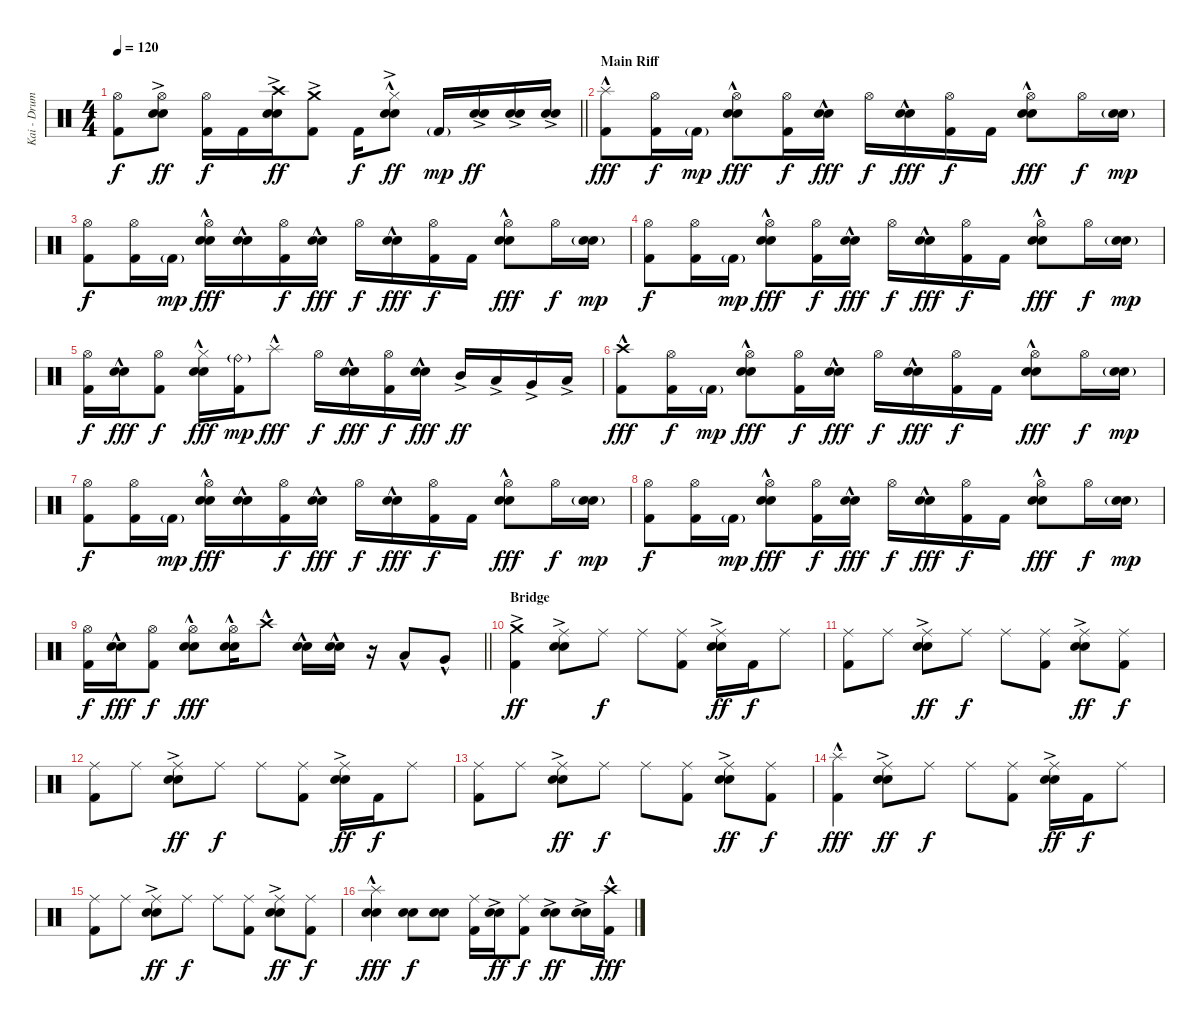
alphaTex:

\track ("Kai - Drums" "Kai - Drum") {instrument percussion}
\staff {score}
\articulation defaults
\ts (4 4)
\tempo 120
\clef neutral
\barLineRight lightlight
\ks c
("Hi-Hat (open)" "Kick (hit) 2").8{dy f} ("Hi-Hat (open)" "Electric Snare (hit)"{ac} "Snare (hit) 2"{ac}).8{dy ff} ("Hi-Hat (open)" "Kick (hit) 2").16{dy f} "Kick (hit) 2".16 ("Crash high (hit)"{ac} "Electric Snare (hit)"{ac} "Snare (hit) 2"{ac}).16{dy ff} ("Crash medium (hit)"{ac} "Kick (hit) 2").8 "Kick (hit) 2".16{dy f} ("Hi-Hat (closed)"{hac} "Electric Snare (hit)"{ac} "Snare (hit) 2"{ac}).8{dy ff} "Kick (hit) 2"{g}.16{dy mp} ("Electric Snare (hit)"{ac} "Snare (hit) 2"{ac}).16{dy ff} ("Electric Snare (hit)"{ac} "Snare (hit) 2"{ac}).16 ("Electric Snare (hit)"{ac} "Snare (hit) 2"{ac}).16 |
\section ("" "Main Riff")
("Splash (hit)"{hac} "Kick (hit) 2").8{dy fff} ("Hi-Hat (open)" "Kick (hit) 2").16{dy f} "Kick (hit) 2"{g}.16{dy mp} ("Hi-Hat (open)" "Electric Snare (hit)"{hac} "Snare (hit) 2").8{dy fff} ("Hi-Hat (open)" "Kick (hit) 2").16{dy f} ("Electric Snare (hit)"{hac} "Snare (hit) 2").16{dy fff} "Hi-Hat (open)".16{dy f} ("Electric Snare (hit)"{hac} "Snare (hit) 2").16{dy fff} ("Hi-Hat (open)" "Kick (hit) 2").16{dy f} "Kick (hit) 2".16 ("Hi-Hat (open)" "Electric Snare (hit)"{hac} "Snare (hit) 2").8{dy fff} "Hi-Hat (open)".16{dy f} ("Electric Snare (hit)"{g} "Snare (hit) 2"{g}).16{dy mp} |
("Hi-Hat (open)" "Kick (hit) 2").8{dy f} ("Hi-Hat (open)" "Kick (hit) 2").16 "Kick (hit) 2"{g}.16{dy mp} ("Hi-Hat (open)" "Electric Snare (hit)"{hac} "Snare (hit) 2").16{dy fff} ("Electric Snare (hit)"{hac} "Snare (hit) 2").16 ("Hi-Hat (open)" "Kick (hit) 2").16{dy f} ("Electric Snare (hit)"{hac} "Snare (hit) 2").16{dy fff} "Hi-Hat (open)".16{dy f} ("Electric Snare (hit)"{hac} "Snare (hit) 2").16{dy fff} ("Hi-Hat (open)" "Kick (hit) 2").16{dy f} "Kick (hit) 2".16 ("Hi-Hat (open)" "Electric Snare (hit)"{hac} "Snare (hit) 2").8{dy fff} "Hi-Hat (open)".16{dy f} ("Electric Snare (hit)"{g} "Snare (hit) 2"{g}).16{dy mp} |
("Hi-Hat (open)" "Kick (hit) 2").8{dy f} ("Hi-Hat (open)" "Kick (hit) 2").16 "Kick (hit) 2"{g}.16{dy mp} ("Hi-Hat (open)" "Electric Snare (hit)"{hac} "Snare (hit) 2").8{dy fff} ("Hi-Hat (open)" "Kick (hit) 2").16{dy f} ("Electric Snare (hit)"{hac} "Snare (hit) 2").16{dy fff} "Hi-Hat (open)".16{dy f} ("Electric Snare (hit)"{hac} "Snare (hit) 2").16{dy fff} ("Hi-Hat (open)" "Kick (hit) 2").16{dy f} "Kick (hit) 2".16 ("Hi-Hat (open)" "Electric Snare (hit)"{hac} "Snare (hit) 2").8{dy fff} "Hi-Hat (open)".16{dy f} ("Electric Snare (hit)"{g} "Snare (hit) 2"{g}).16{dy mp} |
("Hi-Hat (open)" "Kick (hit) 2").16{dy f} ("Electric Snare (hit)"{hac} "Snare (hit) 2").16{dy fff} ("Hi-Hat (open)" "Kick (hit) 2").8{dy f} ("Hi-Hat (closed)" "Electric Snare (hit)"{hac} "Snare (hit) 2").16{dy fff} ("Ride (bell)"{g} "Kick (hit) 2").16{dy mp} "Splash (hit)"{hac}.8{dy fff} "Hi-Hat (open)".16{dy f} ("Electric Snare (hit)"{hac} "Snare (hit) 2").16{dy fff} ("Hi-Hat (open)" "Kick (hit) 2").16{dy f} ("Electric Snare (hit)"{hac} "Snare (hit) 2").16{dy fff} "Mid Tom (hit)"{ac}.16{dy ff} "Low Tom (hit)"{ac}.16 "Very Low Tom (hit)"{ac}.16 "Low Floor Tom (hit)"{ac}.16 |
("Crash high (hit)"{hac} "Kick (hit) 2").8{dy fff} ("Hi-Hat (open)" "Kick (hit) 2").16{dy f} "Kick (hit) 2"{g}.16{dy mp} ("Hi-Hat (open)" "Electric Snare (hit)"{hac} "Snare (hit) 2").8{dy fff} ("Hi-Hat (open)" "Kick (hit) 2").16{dy f} ("Electric Snare (hit)"{hac} "Snare (hit) 2").16{dy fff} "Hi-Hat (open)".16{dy f} ("Electric Snare (hit)"{hac} "Snare (hit) 2").16{dy fff} ("Hi-Hat (open)" "Kick (hit) 2").16{dy f} "Kick (hit) 2".16 ("Hi-Hat (open)" "Electric Snare (hit)"{hac} "Snare (hit) 2").8{dy fff} "Hi-Hat (open)".16{dy f} ("Electric Snare (hit)"{g} "Snare (hit) 2"{g}).16{dy mp} |
("Hi-Hat (open)" "Kick (hit) 2").8{dy f} ("Hi-Hat (open)" "Kick (hit) 2").16 "Kick (hit) 2"{g}.16{dy mp} ("Hi-Hat (open)" "Electric Snare (hit)"{hac} "Snare (hit) 2").16{dy fff} ("Electric Snare (hit)"{hac} "Snare (hit) 2").16 ("Hi-Hat (open)" "Kick (hit) 2").16{dy f} ("Electric Snare (hit)"{hac} "Snare (hit) 2").16{dy fff} "Hi-Hat (open)".16{dy f} ("Electric Snare (hit)"{hac} "Snare (hit) 2").16{dy fff} ("Hi-Hat (open)" "Kick (hit) 2").16{dy f} "Kick (hit) 2".16 ("Hi-Hat (open)" "Electric Snare (hit)"{hac} "Snare (hit) 2").8{dy fff} "Hi-Hat (open)".16{dy f} ("Electric Snare (hit)"{g} "Snare (hit) 2"{g}).16{dy mp} |
("Hi-Hat (open)" "Kick (hit) 2").8{dy f} ("Hi-Hat (open)" "Kick (hit) 2").16 "Kick (hit) 2"{g}.16{dy mp} ("Hi-Hat (open)" "Electric Snare (hit)"{hac} "Snare (hit) 2").8{dy fff} ("Hi-Hat (open)" "Kick (hit) 2").16{dy f} ("Electric Snare (hit)"{hac} "Snare (hit) 2").16{dy fff} "Hi-Hat (open)".16{dy f} ("Electric Snare (hit)"{hac} "Snare (hit) 2").16{dy fff} ("Hi-Hat (open)" "Kick (hit) 2").16{dy f} "Kick (hit) 2".16 ("Hi-Hat (open)" "Electric Snare (hit)"{hac} "Snare (hit) 2").8{dy fff} "Hi-Hat (open)".16{dy f} ("Electric Snare (hit)"{g} "Snare (hit) 2"{g}).16{dy mp} |
\barLineRight lightlight
("Hi-Hat (open)" "Kick (hit) 2").16{dy f} ("Electric Snare (hit)"{hac} "Snare (hit) 2").16{dy fff} ("Hi-Hat (open)" "Kick (hit) 2").8{dy f} ("Hi-Hat (open)" "Electric Snare (hit)"{hac} "Snare (hit) 2").8{dy fff} ("Hi-Hat (open)" "Electric Snare (hit)"{hac} "Snare (hit) 2").16 "Crash high (hit)"{hac}.8 ("Electric Snare (hit)"{hac} "Snare (hit) 2").16 ("Electric Snare (hit)"{hac} "Snare (hit) 2").16 r.16 "Low Tom (hit)"{hac}.8 "Very Low Tom (hit)"{hac}.8 |
\section ("" "Bridge")
("Crash medium (hit)"{ac} "Kick (hit) 2").4{dy ff} ("Ride (middle)" "Electric Snare (hit)"{ac} "Snare (hit) 2"{ac}).8 "Ride (middle)".8{dy f} "Ride (middle)".8 ("Ride (middle)" "Kick (hit) 2").8 ("Ride (middle)" "Electric Snare (hit)"{ac} "Snare (hit) 2"{ac}).16{dy ff} "Kick (hit) 2".16{dy f} "Ride (middle)".8 |
("Ride (middle)" "Kick (hit) 2").8 "Ride (middle)".8 ("Ride (middle)" "Electric Snare (hit)"{ac} "Snare (hit) 2"{ac}).8{dy ff} "Ride (middle)".8{dy f} "Ride (middle)".8 ("Ride (middle)" "Kick (hit) 2").8 ("Ride (middle)" "Electric Snare (hit)"{ac} "Snare (hit) 2"{ac}).8{dy ff} ("Ride (middle)" "Kick (hit) 2").8{dy f} |
("Ride (middle)" "Kick (hit) 2").8 "Ride (middle)".8 ("Ride (middle)" "Electric Snare (hit)"{ac} "Snare (hit) 2"{ac}).8{dy ff} "Ride (middle)".8{dy f} "Ride (middle)".8 ("Ride (middle)" "Kick (hit) 2").8 ("Ride (middle)" "Electric Snare (hit)"{ac} "Snare (hit) 2"{ac}).16{dy ff} "Kick (hit) 2".16{dy f} "Ride (middle)".8 |
("Ride (middle)" "Kick (hit) 2").8 "Ride (middle)".8 ("Ride (middle)" "Electric Snare (hit)"{ac} "Snare (hit) 2"{ac}).8{dy ff} "Ride (middle)".8{dy f} "Ride (middle)".8 ("Ride (middle)" "Kick (hit) 2").8 ("Ride (middle)" "Electric Snare (hit)"{ac} "Snare (hit) 2"{ac}).8{dy ff} ("Ride (middle)" "Kick (hit) 2").8{dy f} |
("Splash (hit)"{hac} "Kick (hit) 2").4{dy fff} ("Ride (middle)" "Electric Snare (hit)"{ac} "Snare (hit) 2"{ac}).8{dy ff} "Ride (middle)".8{dy f} "Ride (middle)".8 ("Ride (middle)" "Kick (hit) 2").8 ("Ride (middle)" "Electric Snare (hit)"{ac} "Snare (hit) 2"{ac}).16{dy ff} "Kick (hit) 2".16{dy f} "Ride (middle)".8 |
("Ride (middle)" "Kick (hit) 2").8 "Ride (middle)".8 ("Ride (middle)" "Electric Snare (hit)"{ac} "Snare (hit) 2"{ac}).8{dy ff} "Ride (middle)".8{dy f} "Ride (middle)".8 ("Ride (middle)" "Kick (hit) 2").8 ("Ride (middle)" "Electric Snare (hit)"{ac} "Snare (hit) 2"{ac}).8{dy ff} ("Ride (middle)" "Kick (hit) 2").8{dy f} |
("Splash (hit)"{hac} "Electric Snare (hit)"{hac} "Snare (hit) 2"{hac}).4{dy fff} ("Electric Snare (hit)" "Snare (hit) 2").8{dy f} ("Electric Snare (hit)" "Snare (hit) 2").8 ("Ride (middle)" "Kick (hit) 2").16 ("Electric Snare (hit)"{ac} "Snare (hit) 2"{ac}).16{dy ff} ("Ride (middle)" "Kick (hit) 2").8{dy f} ("Electric Snare (hit)"{ac} "Snare (hit) 2"{ac}).8{dy ff} ("Electric Snare (hit)"{ac} "Snare (hit) 2"{ac}).16 ("Crash high (hit)"{hac} "Kick (hit) 2").16{dy fff}
